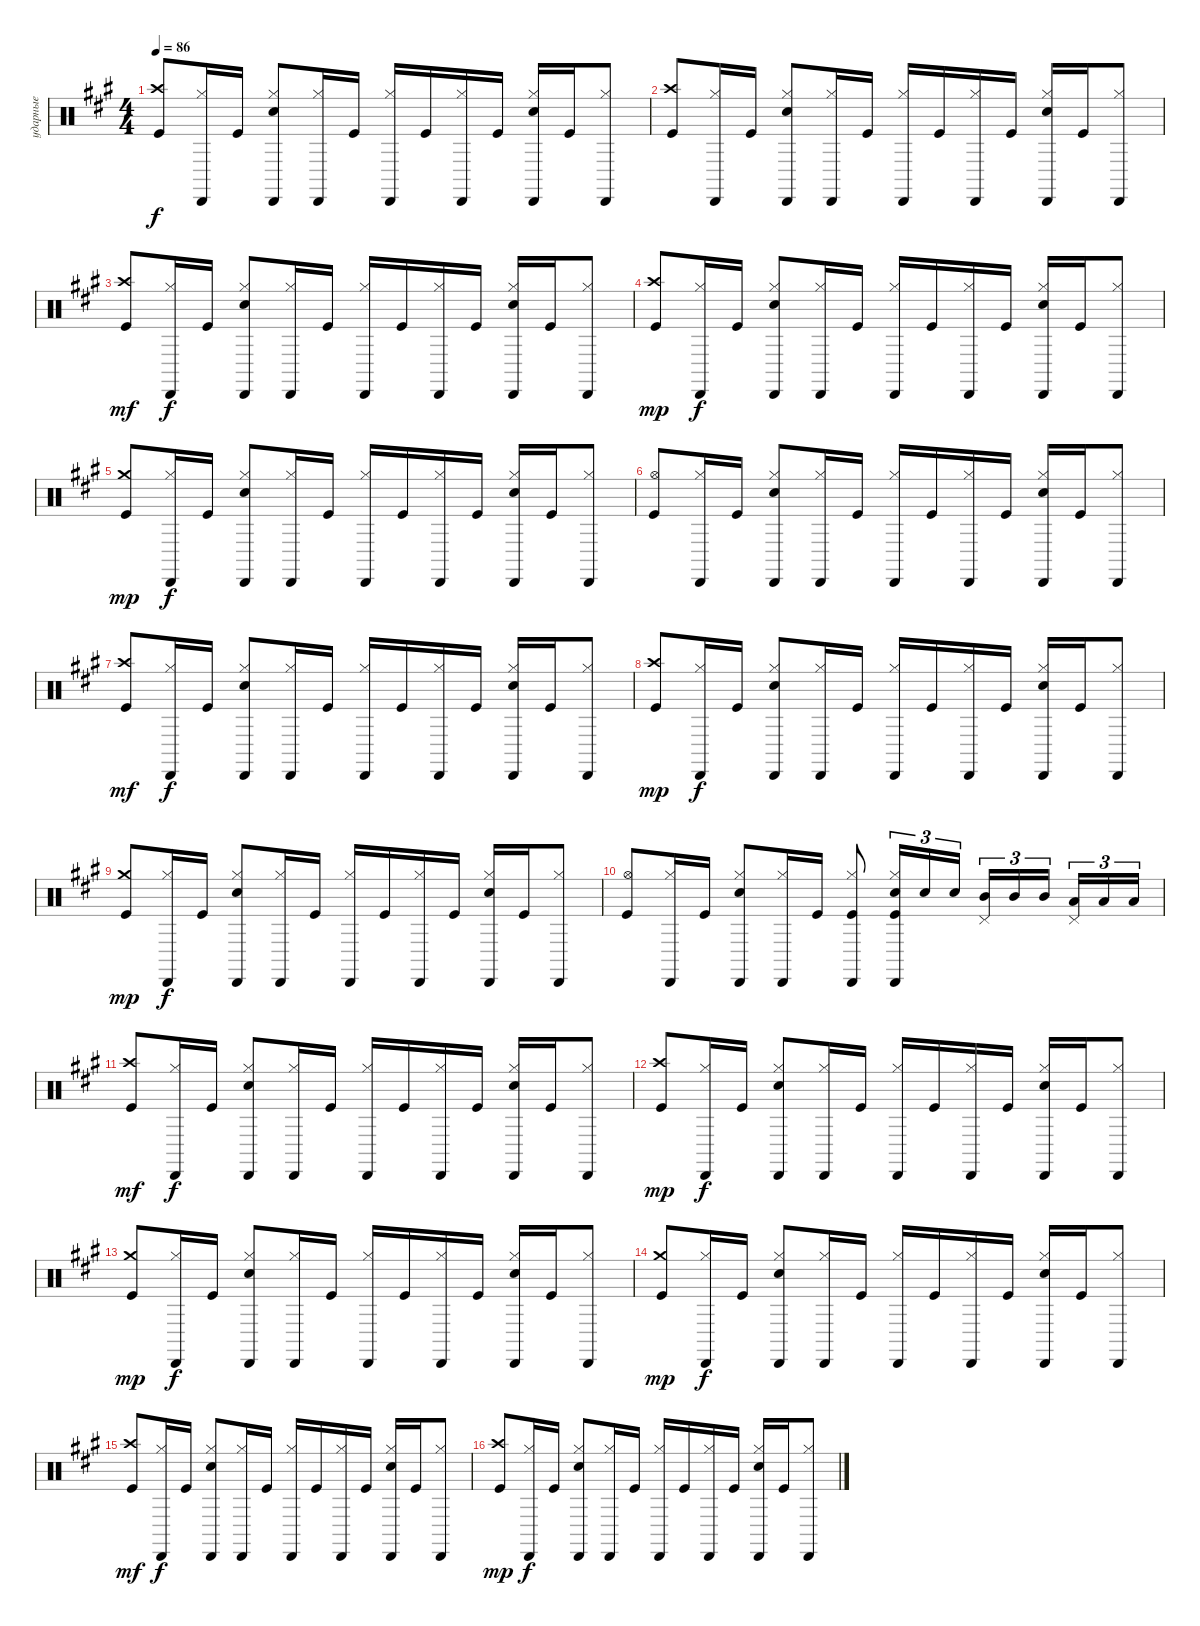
\track ("ударные" "ударные") {instrument percussion}
\staff {score}
\articulation defaults
\ts (4 4)
\tempo 86
\clef neutral
\ks f#minor
("Kick (hit)" "Crash high (hit)").8{dy f} ("Hi-Hat (closed)" "Cabasa (hit)").16 "Kick (hit)".16 ("Snare (hit) 2" "Hi-Hat (closed)" "Cabasa (hit)").8 ("Hi-Hat (closed)" "Cabasa (hit)").16 "Kick (hit)".16 ("Hi-Hat (closed)" "Cabasa (hit)").16 "Kick (hit)".16 ("Hi-Hat (closed)" "Cabasa (hit)").16 "Kick (hit)".16 ("Hi-Hat (closed)" "Snare (hit) 2" "Cabasa (hit)").16 "Kick (hit)".16 ("Hi-Hat (closed)" "Cabasa (hit)").8 |
("Kick (hit)" "Crash high (hit)").8 ("Hi-Hat (closed)" "Cabasa (hit)").16 "Kick (hit)".16 ("Snare (hit) 2" "Hi-Hat (closed)" "Cabasa (hit)").8 ("Hi-Hat (closed)" "Cabasa (hit)").16 "Kick (hit)".16 ("Hi-Hat (closed)" "Cabasa (hit)").16 "Kick (hit)".16 ("Hi-Hat (closed)" "Cabasa (hit)").16 "Kick (hit)".16 ("Hi-Hat (closed)" "Snare (hit) 2" "Cabasa (hit)").16 "Kick (hit)".16 ("Hi-Hat (closed)" "Cabasa (hit)").8 |
("Kick (hit)" "Crash high (hit)").8{dy mf} ("Hi-Hat (closed)" "Cabasa (hit)").16{dy f} "Kick (hit)".16 ("Snare (hit) 2" "Hi-Hat (closed)" "Cabasa (hit)").8 ("Hi-Hat (closed)" "Cabasa (hit)").16 "Kick (hit)".16 ("Hi-Hat (closed)" "Cabasa (hit)").16 "Kick (hit)".16 ("Hi-Hat (closed)" "Cabasa (hit)").16 "Kick (hit)".16 ("Hi-Hat (closed)" "Snare (hit) 2" "Cabasa (hit)").16 "Kick (hit)".16 ("Hi-Hat (closed)" "Cabasa (hit)").8 |
("Kick (hit)" "Crash high (hit)").8{dy mp} ("Hi-Hat (closed)" "Cabasa (hit)").16{dy f} "Kick (hit)".16 ("Snare (hit) 2" "Hi-Hat (closed)" "Cabasa (hit)").8 ("Hi-Hat (closed)" "Cabasa (hit)").16 "Kick (hit)".16 ("Hi-Hat (closed)" "Cabasa (hit)").16 "Kick (hit)".16 ("Hi-Hat (closed)" "Cabasa (hit)").16 "Kick (hit)".16 ("Hi-Hat (closed)" "Snare (hit) 2" "Cabasa (hit)").16 "Kick (hit)".16 ("Hi-Hat (closed)" "Cabasa (hit)").8 |
("Kick (hit)" "Crash medium (hit)").8{dy mp} ("Hi-Hat (closed)" "Cabasa (hit)").16{dy f} "Kick (hit)".16 ("Snare (hit) 2" "Hi-Hat (closed)" "Cabasa (hit)").8 ("Hi-Hat (closed)" "Cabasa (hit)").16 "Kick (hit)".16 ("Hi-Hat (closed)" "Cabasa (hit)").16 "Kick (hit)".16 ("Hi-Hat (closed)" "Cabasa (hit)").16 "Kick (hit)".16 ("Hi-Hat (closed)" "Snare (hit) 2" "Cabasa (hit)").16 "Kick (hit)".16 ("Hi-Hat (closed)" "Cabasa (hit)").8 |
("Kick (hit)" "Hi-Hat (open)").8 ("Hi-Hat (closed)" "Cabasa (hit)").16 "Kick (hit)".16 ("Snare (hit) 2" "Hi-Hat (closed)" "Cabasa (hit)").8 ("Hi-Hat (closed)" "Cabasa (hit)").16 "Kick (hit)".16 ("Hi-Hat (closed)" "Cabasa (hit)").16 "Kick (hit)".16 ("Hi-Hat (closed)" "Cabasa (hit)").16 "Kick (hit)".16 ("Hi-Hat (closed)" "Snare (hit) 2" "Cabasa (hit)").16 "Kick (hit)".16 ("Hi-Hat (closed)" "Cabasa (hit)").8 |
("Kick (hit)" "Crash high (hit)").8{dy mf} ("Hi-Hat (closed)" "Cabasa (hit)").16{dy f} "Kick (hit)".16 ("Snare (hit) 2" "Hi-Hat (closed)" "Cabasa (hit)").8 ("Hi-Hat (closed)" "Cabasa (hit)").16 "Kick (hit)".16 ("Hi-Hat (closed)" "Cabasa (hit)").16 "Kick (hit)".16 ("Hi-Hat (closed)" "Cabasa (hit)").16 "Kick (hit)".16 ("Hi-Hat (closed)" "Snare (hit) 2" "Cabasa (hit)").16 "Kick (hit)".16 ("Hi-Hat (closed)" "Cabasa (hit)").8 |
("Kick (hit)" "Crash high (hit)").8{dy mp} ("Hi-Hat (closed)" "Cabasa (hit)").16{dy f} "Kick (hit)".16 ("Snare (hit) 2" "Hi-Hat (closed)" "Cabasa (hit)").8 ("Hi-Hat (closed)" "Cabasa (hit)").16 "Kick (hit)".16 ("Hi-Hat (closed)" "Cabasa (hit)").16 "Kick (hit)".16 ("Hi-Hat (closed)" "Cabasa (hit)").16 "Kick (hit)".16 ("Hi-Hat (closed)" "Snare (hit) 2" "Cabasa (hit)").16 "Kick (hit)".16 ("Hi-Hat (closed)" "Cabasa (hit)").8 |
("Kick (hit)" "Crash medium (hit)").8{dy mp} ("Hi-Hat (closed)" "Cabasa (hit)").16{dy f} "Kick (hit)".16 ("Snare (hit) 2" "Hi-Hat (closed)" "Cabasa (hit)").8 ("Hi-Hat (closed)" "Cabasa (hit)").16 "Kick (hit)".16 ("Hi-Hat (closed)" "Cabasa (hit)").16 "Kick (hit)".16 ("Hi-Hat (closed)" "Cabasa (hit)").16 "Kick (hit)".16 ("Hi-Hat (closed)" "Snare (hit) 2" "Cabasa (hit)").16 "Kick (hit)".16 ("Hi-Hat (closed)" "Cabasa (hit)").8 |
("Kick (hit)" "Hi-Hat (open)").8 ("Hi-Hat (closed)" "Cabasa (hit)").16 "Kick (hit)".16 ("Snare (hit) 2" "Hi-Hat (closed)" "Cabasa (hit)").8 ("Hi-Hat (closed)" "Cabasa (hit)").16 "Kick (hit)".16 ("Kick (hit)" "Hi-Hat (closed)" "Cabasa (hit)").8 ("Snare (hit) 2" "Kick (hit)" "Hi-Hat (closed)" "Cabasa (hit)").16{tu (3 2)} "Snare (hit) 2".16{tu (3 2)} "Snare (hit) 2".16{tu (3 2)} ("Mid Tom (hit)" "Pedal Hi-Hat (hit)").16{tu (3 2)} "Mid Tom (hit)".16{tu (3 2)} "Mid Tom (hit)".16{tu (3 2) beam splitsecondary} ("Low Tom (hit)" "Pedal Hi-Hat (hit)").16{tu (3 2)} "Low Tom (hit)".16{tu (3 2)} "Low Tom (hit)".16{tu (3 2)} |
("Kick (hit)" "Crash high (hit)").8{dy mf} ("Hi-Hat (closed)" "Cabasa (hit)").16{dy f} "Kick (hit)".16 ("Snare (hit) 2" "Hi-Hat (closed)" "Cabasa (hit)").8 ("Hi-Hat (closed)" "Cabasa (hit)").16 "Kick (hit)".16 ("Hi-Hat (closed)" "Cabasa (hit)").16 "Kick (hit)".16 ("Hi-Hat (closed)" "Cabasa (hit)").16 "Kick (hit)".16 ("Hi-Hat (closed)" "Snare (hit) 2" "Cabasa (hit)").16 "Kick (hit)".16 ("Hi-Hat (closed)" "Cabasa (hit)").8 |
("Kick (hit)" "Crash high (hit)").8{dy mp} ("Hi-Hat (closed)" "Cabasa (hit)").16{dy f} "Kick (hit)".16 ("Snare (hit) 2" "Hi-Hat (closed)" "Cabasa (hit)").8 ("Hi-Hat (closed)" "Cabasa (hit)").16 "Kick (hit)".16 ("Hi-Hat (closed)" "Cabasa (hit)").16 "Kick (hit)".16 ("Hi-Hat (closed)" "Cabasa (hit)").16 "Kick (hit)".16 ("Hi-Hat (closed)" "Snare (hit) 2" "Cabasa (hit)").16 "Kick (hit)".16 ("Hi-Hat (closed)" "Cabasa (hit)").8 |
("Kick (hit)" "Crash medium (hit)").8{dy mp} ("Hi-Hat (closed)" "Cabasa (hit)").16{dy f} "Kick (hit)".16 ("Snare (hit) 2" "Hi-Hat (closed)" "Cabasa (hit)").8 ("Hi-Hat (closed)" "Cabasa (hit)").16 "Kick (hit)".16 ("Hi-Hat (closed)" "Cabasa (hit)").16 "Kick (hit)".16 ("Hi-Hat (closed)" "Cabasa (hit)").16 "Kick (hit)".16 ("Hi-Hat (closed)" "Snare (hit) 2" "Cabasa (hit)").16 "Kick (hit)".16 ("Hi-Hat (closed)" "Cabasa (hit)").8 |
("Kick (hit)" "Crash medium (hit)").8{dy mp} ("Hi-Hat (closed)" "Cabasa (hit)").16{dy f} "Kick (hit)".16 ("Snare (hit) 2" "Hi-Hat (closed)" "Cabasa (hit)").8 ("Hi-Hat (closed)" "Cabasa (hit)").16 "Kick (hit)".16 ("Hi-Hat (closed)" "Cabasa (hit)").16 "Kick (hit)".16 ("Hi-Hat (closed)" "Cabasa (hit)").16 "Kick (hit)".16 ("Hi-Hat (closed)" "Snare (hit) 2" "Cabasa (hit)").16 "Kick (hit)".16 ("Hi-Hat (closed)" "Cabasa (hit)").8 |
("Kick (hit)" "Crash high (hit)").8{dy mf} ("Hi-Hat (closed)" "Cabasa (hit)").16{dy f} "Kick (hit)".16 ("Snare (hit) 2" "Hi-Hat (closed)" "Cabasa (hit)").8 ("Hi-Hat (closed)" "Cabasa (hit)").16 "Kick (hit)".16 ("Hi-Hat (closed)" "Cabasa (hit)").16 "Kick (hit)".16 ("Hi-Hat (closed)" "Cabasa (hit)").16 "Kick (hit)".16 ("Hi-Hat (closed)" "Snare (hit) 2" "Cabasa (hit)").16 "Kick (hit)".16 ("Hi-Hat (closed)" "Cabasa (hit)").8 |
("Kick (hit)" "Crash high (hit)").8{dy mp} ("Hi-Hat (closed)" "Cabasa (hit)").16{dy f} "Kick (hit)".16 ("Snare (hit) 2" "Hi-Hat (closed)" "Cabasa (hit)").8 ("Hi-Hat (closed)" "Cabasa (hit)").16 "Kick (hit)".16 ("Hi-Hat (closed)" "Cabasa (hit)").16 "Kick (hit)".16 ("Hi-Hat (closed)" "Cabasa (hit)").16 "Kick (hit)".16 ("Hi-Hat (closed)" "Snare (hit) 2" "Cabasa (hit)").16 "Kick (hit)".16 ("Hi-Hat (closed)" "Cabasa (hit)").8
